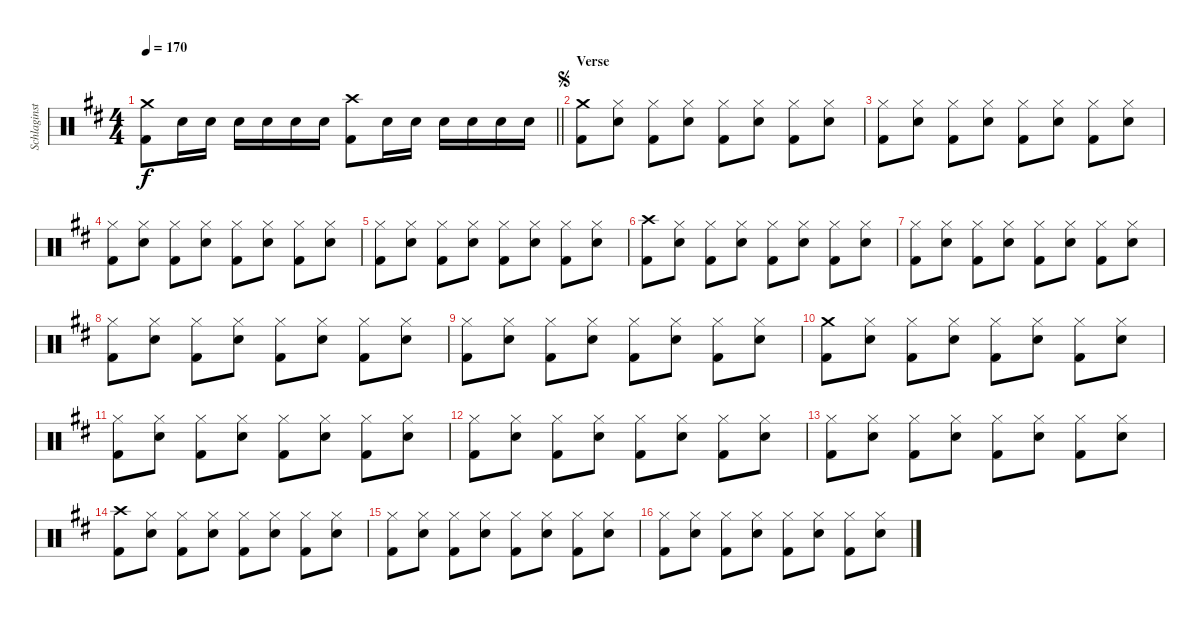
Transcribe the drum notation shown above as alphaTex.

\track ("Schlaginstrumente - Auswahl" "Schlaginst") {instrument percussion}
\staff {score}
\articulation defaults
\ts (4 4)
\tempo 170
\clef neutral
\barLineRight lightlight
\ks d
("Crash medium (hit)" "Kick (hit) 2").8{dy f} "Snare (hit) 2".16 "Snare (hit) 2".16 "Snare (hit) 2".16 "Snare (hit) 2".16 "Snare (hit) 2".16 "Snare (hit) 2".16 ("Crash high (hit)" "Kick (hit) 2").8 "Snare (hit) 2".16 "Snare (hit) 2".16 "Snare (hit) 2".16 "Snare (hit) 2".16 "Snare (hit) 2".16 "Snare (hit) 2".16 |
\section ("" "Verse")
\jump segno
("Crash medium (hit)" "Kick (hit) 2").8 ("Hi-Hat (closed)" "Snare (hit) 2").8 ("Hi-Hat (closed)" "Kick (hit) 2").8 ("Hi-Hat (closed)" "Snare (hit) 2").8 ("Hi-Hat (closed)" "Kick (hit) 2").8 ("Hi-Hat (closed)" "Snare (hit) 2").8 ("Hi-Hat (closed)" "Kick (hit) 2").8 ("Hi-Hat (closed)" "Snare (hit) 2").8 |
("Hi-Hat (closed)" "Kick (hit) 2").8 ("Hi-Hat (closed)" "Snare (hit) 2").8 ("Hi-Hat (closed)" "Kick (hit) 2").8 ("Hi-Hat (closed)" "Snare (hit) 2").8 ("Hi-Hat (closed)" "Kick (hit) 2").8 ("Hi-Hat (closed)" "Snare (hit) 2").8 ("Hi-Hat (closed)" "Kick (hit) 2").8 ("Hi-Hat (closed)" "Snare (hit) 2").8 |
("Hi-Hat (closed)" "Kick (hit) 2").8 ("Hi-Hat (closed)" "Snare (hit) 2").8 ("Hi-Hat (closed)" "Kick (hit) 2").8 ("Hi-Hat (closed)" "Snare (hit) 2").8 ("Hi-Hat (closed)" "Kick (hit) 2").8 ("Hi-Hat (closed)" "Snare (hit) 2").8 ("Hi-Hat (closed)" "Kick (hit) 2").8 ("Hi-Hat (closed)" "Snare (hit) 2").8 |
("Hi-Hat (closed)" "Kick (hit) 2").8 ("Hi-Hat (closed)" "Snare (hit) 2").8 ("Hi-Hat (closed)" "Kick (hit) 2").8 ("Hi-Hat (closed)" "Snare (hit) 2").8 ("Hi-Hat (closed)" "Kick (hit) 2").8 ("Hi-Hat (closed)" "Snare (hit) 2").8 ("Hi-Hat (closed)" "Kick (hit) 2").8 ("Hi-Hat (closed)" "Snare (hit) 2").8 |
("Crash high (hit)" "Kick (hit) 2").8 ("Hi-Hat (closed)" "Snare (hit) 2").8 ("Hi-Hat (closed)" "Kick (hit) 2").8 ("Hi-Hat (closed)" "Snare (hit) 2").8 ("Hi-Hat (closed)" "Kick (hit) 2").8 ("Hi-Hat (closed)" "Snare (hit) 2").8 ("Hi-Hat (closed)" "Kick (hit) 2").8 ("Hi-Hat (closed)" "Snare (hit) 2").8 |
("Hi-Hat (closed)" "Kick (hit) 2").8 ("Hi-Hat (closed)" "Snare (hit) 2").8 ("Hi-Hat (closed)" "Kick (hit) 2").8 ("Hi-Hat (closed)" "Snare (hit) 2").8 ("Hi-Hat (closed)" "Kick (hit) 2").8 ("Hi-Hat (closed)" "Snare (hit) 2").8 ("Hi-Hat (closed)" "Kick (hit) 2").8 ("Hi-Hat (closed)" "Snare (hit) 2").8 |
("Hi-Hat (closed)" "Kick (hit) 2").8 ("Hi-Hat (closed)" "Snare (hit) 2").8 ("Hi-Hat (closed)" "Kick (hit) 2").8 ("Hi-Hat (closed)" "Snare (hit) 2").8 ("Hi-Hat (closed)" "Kick (hit) 2").8 ("Hi-Hat (closed)" "Snare (hit) 2").8 ("Hi-Hat (closed)" "Kick (hit) 2").8 ("Hi-Hat (closed)" "Snare (hit) 2").8 |
("Hi-Hat (closed)" "Kick (hit) 2").8 ("Hi-Hat (closed)" "Snare (hit) 2").8 ("Hi-Hat (closed)" "Kick (hit) 2").8 ("Hi-Hat (closed)" "Snare (hit) 2").8 ("Hi-Hat (closed)" "Kick (hit) 2").8 ("Hi-Hat (closed)" "Snare (hit) 2").8 ("Hi-Hat (closed)" "Kick (hit) 2").8 ("Hi-Hat (closed)" "Snare (hit) 2").8 |
("Crash medium (hit)" "Kick (hit) 2").8 ("Hi-Hat (closed)" "Snare (hit) 2").8 ("Hi-Hat (closed)" "Kick (hit) 2").8 ("Hi-Hat (closed)" "Snare (hit) 2").8 ("Hi-Hat (closed)" "Kick (hit) 2").8 ("Hi-Hat (closed)" "Snare (hit) 2").8 ("Hi-Hat (closed)" "Kick (hit) 2").8 ("Hi-Hat (closed)" "Snare (hit) 2").8 |
("Hi-Hat (closed)" "Kick (hit) 2").8 ("Hi-Hat (closed)" "Snare (hit) 2").8 ("Hi-Hat (closed)" "Kick (hit) 2").8 ("Hi-Hat (closed)" "Snare (hit) 2").8 ("Hi-Hat (closed)" "Kick (hit) 2").8 ("Hi-Hat (closed)" "Snare (hit) 2").8 ("Hi-Hat (closed)" "Kick (hit) 2").8 ("Hi-Hat (closed)" "Snare (hit) 2").8 |
("Hi-Hat (closed)" "Kick (hit) 2").8 ("Hi-Hat (closed)" "Snare (hit) 2").8 ("Hi-Hat (closed)" "Kick (hit) 2").8 ("Hi-Hat (closed)" "Snare (hit) 2").8 ("Hi-Hat (closed)" "Kick (hit) 2").8 ("Hi-Hat (closed)" "Snare (hit) 2").8 ("Hi-Hat (closed)" "Kick (hit) 2").8 ("Hi-Hat (closed)" "Snare (hit) 2").8 |
("Hi-Hat (closed)" "Kick (hit) 2").8 ("Hi-Hat (closed)" "Snare (hit) 2").8 ("Hi-Hat (closed)" "Kick (hit) 2").8 ("Hi-Hat (closed)" "Snare (hit) 2").8 ("Hi-Hat (closed)" "Kick (hit) 2").8 ("Hi-Hat (closed)" "Snare (hit) 2").8 ("Hi-Hat (closed)" "Kick (hit) 2").8 ("Hi-Hat (closed)" "Snare (hit) 2").8 |
("Crash high (hit)" "Kick (hit) 2").8 ("Hi-Hat (closed)" "Snare (hit) 2").8 ("Hi-Hat (closed)" "Kick (hit) 2").8 ("Hi-Hat (closed)" "Snare (hit) 2").8 ("Hi-Hat (closed)" "Kick (hit) 2").8 ("Hi-Hat (closed)" "Snare (hit) 2").8 ("Hi-Hat (closed)" "Kick (hit) 2").8 ("Hi-Hat (closed)" "Snare (hit) 2").8 |
("Hi-Hat (closed)" "Kick (hit) 2").8 ("Hi-Hat (closed)" "Snare (hit) 2").8 ("Hi-Hat (closed)" "Kick (hit) 2").8 ("Hi-Hat (closed)" "Snare (hit) 2").8 ("Hi-Hat (closed)" "Kick (hit) 2").8 ("Hi-Hat (closed)" "Snare (hit) 2").8 ("Hi-Hat (closed)" "Kick (hit) 2").8 ("Hi-Hat (closed)" "Snare (hit) 2").8 |
("Hi-Hat (closed)" "Kick (hit) 2").8 ("Hi-Hat (closed)" "Snare (hit) 2").8 ("Hi-Hat (closed)" "Kick (hit) 2").8 ("Hi-Hat (closed)" "Snare (hit) 2").8 ("Hi-Hat (closed)" "Kick (hit) 2").8 ("Hi-Hat (closed)" "Snare (hit) 2").8 ("Hi-Hat (closed)" "Kick (hit) 2").8 ("Hi-Hat (closed)" "Snare (hit) 2").8
